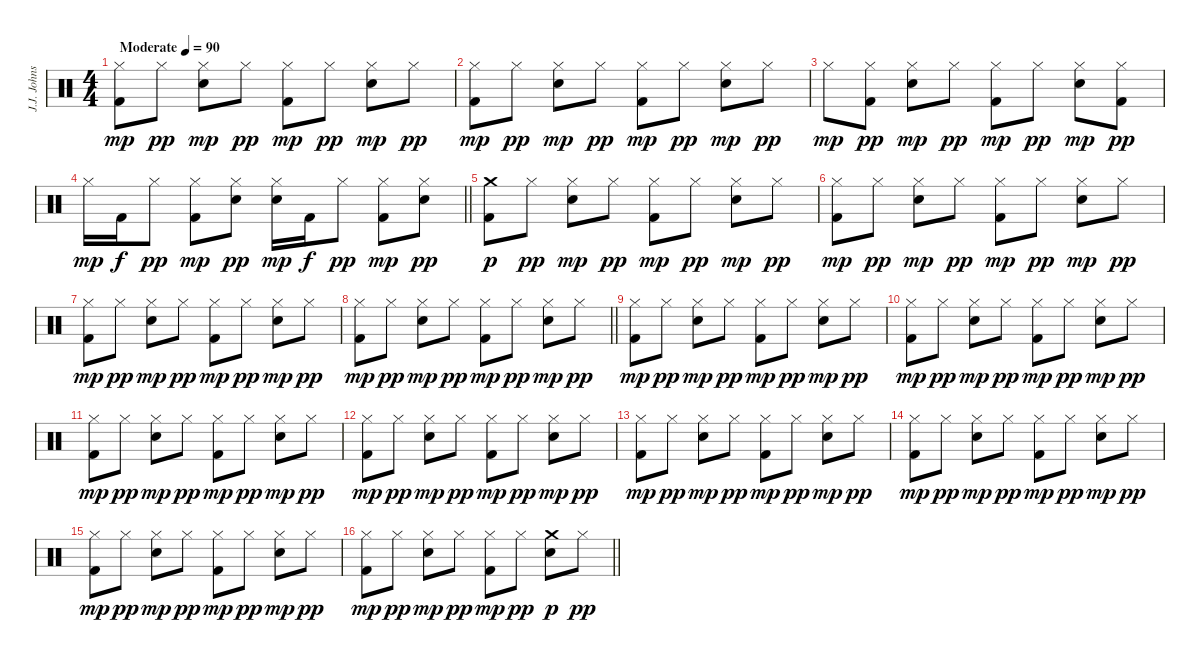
\track ("J.J. Johnson" "J.J. Johns") {instrument percussion}
\staff {score}
\articulation defaults
\ts (4 4)
\tempo (90 "Moderate")
\clef neutral
\ks c
("Hi-Hat (closed)" "Kick (hit) 2").8{dy mp} "Hi-Hat (closed)".8{dy pp} ("Hi-Hat (closed)" "Electric Snare (hit)").8{dy mp} "Hi-Hat (closed)".8{dy pp} ("Hi-Hat (closed)" "Kick (hit) 2").8{dy mp} "Hi-Hat (closed)".8{dy pp} ("Hi-Hat (closed)" "Electric Snare (hit)").8{dy mp} "Hi-Hat (closed)".8{dy pp} |
("Hi-Hat (closed)" "Kick (hit) 2").8{dy mp} "Hi-Hat (closed)".8{dy pp} ("Hi-Hat (closed)" "Electric Snare (hit)").8{dy mp} "Hi-Hat (closed)".8{dy pp} ("Hi-Hat (closed)" "Kick (hit) 2").8{dy mp} "Hi-Hat (closed)".8{dy pp} ("Hi-Hat (closed)" "Electric Snare (hit)").8{dy mp} "Hi-Hat (closed)".8{dy pp} |
"Hi-Hat (closed)".8{dy mp} ("Hi-Hat (closed)" "Kick (hit) 2").8{dy pp} ("Hi-Hat (closed)" "Electric Snare (hit)").8{dy mp} "Hi-Hat (closed)".8{dy pp} ("Hi-Hat (closed)" "Kick (hit) 2").8{dy mp} "Hi-Hat (closed)".8{dy pp} ("Hi-Hat (closed)" "Electric Snare (hit)").8{dy mp} ("Hi-Hat (closed)" "Kick (hit) 2").8{dy pp} |
\barLineRight lightlight "Hi-Hat (closed)".16{dy mp} "Kick (hit) 2".16{dy f} "Hi-Hat (closed)".8{dy pp}
("Hi-Hat (closed)" "Kick (hit) 2").8{dy mp} ("Hi-Hat (closed)" "Electric Snare (hit)").8{dy pp} ("Hi-Hat (closed)" "Electric Snare (hit)").16{dy mp} "Kick (hit) 2".16{dy f} "Hi-Hat (closed)".8{dy pp} ("Hi-Hat (closed)" "Kick (hit) 2").8{dy mp} ("Hi-Hat (closed)" "Electric Snare (hit)").8{dy pp} |
("Crash medium (hit)" "Kick (hit) 2").8{dy p} "Hi-Hat (closed)".8{dy pp} ("Hi-Hat (closed)" "Electric Snare (hit)").8{dy mp} "Hi-Hat (closed)".8{dy pp} ("Hi-Hat (closed)" "Kick (hit) 2").8{dy mp} "Hi-Hat (closed)".8{dy pp} ("Hi-Hat (closed)" "Electric Snare (hit)").8{dy mp} "Hi-Hat (closed)".8{dy pp} |
("Hi-Hat (closed)" "Kick (hit) 2").8{dy mp} "Hi-Hat (closed)".8{dy pp} ("Hi-Hat (closed)" "Electric Snare (hit)").8{dy mp} "Hi-Hat (closed)".8{dy pp} ("Hi-Hat (closed)" "Kick (hit) 2").8{dy mp} "Hi-Hat (closed)".8{dy pp} ("Hi-Hat (closed)" "Electric Snare (hit)").8{dy mp} "Hi-Hat (closed)".8{dy pp} |
("Hi-Hat (closed)" "Kick (hit) 2").8{dy mp} "Hi-Hat (closed)".8{dy pp} ("Hi-Hat (closed)" "Electric Snare (hit)").8{dy mp} "Hi-Hat (closed)".8{dy pp} ("Hi-Hat (closed)" "Kick (hit) 2").8{dy mp} "Hi-Hat (closed)".8{dy pp} ("Hi-Hat (closed)" "Electric Snare (hit)").8{dy mp} "Hi-Hat (closed)".8{dy pp} |
\barLineRight lightlight
("Hi-Hat (closed)" "Kick (hit) 2").8{dy mp} "Hi-Hat (closed)".8{dy pp} ("Hi-Hat (closed)" "Electric Snare (hit)").8{dy mp} "Hi-Hat (closed)".8{dy pp} ("Hi-Hat (closed)" "Kick (hit) 2").8{dy mp} "Hi-Hat (closed)".8{dy pp} ("Hi-Hat (closed)" "Electric Snare (hit)").8{dy mp} "Hi-Hat (closed)".8{dy pp} |
("Hi-Hat (closed)" "Kick (hit) 2").8{dy mp} "Hi-Hat (closed)".8{dy pp} ("Hi-Hat (closed)" "Electric Snare (hit)").8{dy mp} "Hi-Hat (closed)".8{dy pp} ("Hi-Hat (closed)" "Kick (hit) 2").8{dy mp} "Hi-Hat (closed)".8{dy pp} ("Hi-Hat (closed)" "Electric Snare (hit)").8{dy mp} "Hi-Hat (closed)".8{dy pp} |
("Hi-Hat (closed)" "Kick (hit) 2").8{dy mp} "Hi-Hat (closed)".8{dy pp} ("Hi-Hat (closed)" "Electric Snare (hit)").8{dy mp} "Hi-Hat (closed)".8{dy pp} ("Hi-Hat (closed)" "Kick (hit) 2").8{dy mp} "Hi-Hat (closed)".8{dy pp} ("Hi-Hat (closed)" "Electric Snare (hit)").8{dy mp} "Hi-Hat (closed)".8{dy pp} |
("Hi-Hat (closed)" "Kick (hit) 2").8{dy mp} "Hi-Hat (closed)".8{dy pp} ("Hi-Hat (closed)" "Electric Snare (hit)").8{dy mp} "Hi-Hat (closed)".8{dy pp} ("Hi-Hat (closed)" "Kick (hit) 2").8{dy mp} "Hi-Hat (closed)".8{dy pp} ("Hi-Hat (closed)" "Electric Snare (hit)").8{dy mp} "Hi-Hat (closed)".8{dy pp} |
("Hi-Hat (closed)" "Kick (hit) 2").8{dy mp} "Hi-Hat (closed)".8{dy pp} ("Hi-Hat (closed)" "Electric Snare (hit)").8{dy mp} "Hi-Hat (closed)".8{dy pp} ("Hi-Hat (closed)" "Kick (hit) 2").8{dy mp} "Hi-Hat (closed)".8{dy pp} ("Hi-Hat (closed)" "Electric Snare (hit)").8{dy mp} "Hi-Hat (closed)".8{dy pp} |
("Hi-Hat (closed)" "Kick (hit) 2").8{dy mp} "Hi-Hat (closed)".8{dy pp} ("Hi-Hat (closed)" "Electric Snare (hit)").8{dy mp} "Hi-Hat (closed)".8{dy pp} ("Hi-Hat (closed)" "Kick (hit) 2").8{dy mp} "Hi-Hat (closed)".8{dy pp} ("Hi-Hat (closed)" "Electric Snare (hit)").8{dy mp} "Hi-Hat (closed)".8{dy pp} |
("Hi-Hat (closed)" "Kick (hit) 2").8{dy mp} "Hi-Hat (closed)".8{dy pp} ("Hi-Hat (closed)" "Electric Snare (hit)").8{dy mp} "Hi-Hat (closed)".8{dy pp} ("Hi-Hat (closed)" "Kick (hit) 2").8{dy mp} "Hi-Hat (closed)".8{dy pp} ("Hi-Hat (closed)" "Electric Snare (hit)").8{dy mp} "Hi-Hat (closed)".8{dy pp} |
("Hi-Hat (closed)" "Kick (hit) 2").8{dy mp} "Hi-Hat (closed)".8{dy pp} ("Hi-Hat (closed)" "Electric Snare (hit)").8{dy mp} "Hi-Hat (closed)".8{dy pp} ("Hi-Hat (closed)" "Kick (hit) 2").8{dy mp} "Hi-Hat (closed)".8{dy pp} ("Hi-Hat (closed)" "Electric Snare (hit)").8{dy mp} "Hi-Hat (closed)".8{dy pp} |
\barLineRight lightlight
("Hi-Hat (closed)" "Kick (hit) 2").8{dy mp} "Hi-Hat (closed)".8{dy pp} ("Hi-Hat (closed)" "Electric Snare (hit)").8{dy mp} "Hi-Hat (closed)".8{dy pp} ("Hi-Hat (closed)" "Kick (hit) 2").8{dy mp} "Hi-Hat (closed)".8{dy pp} ("Crash medium (hit)" "Electric Snare (hit)").8{dy p} "Hi-Hat (closed)".8{dy pp}
